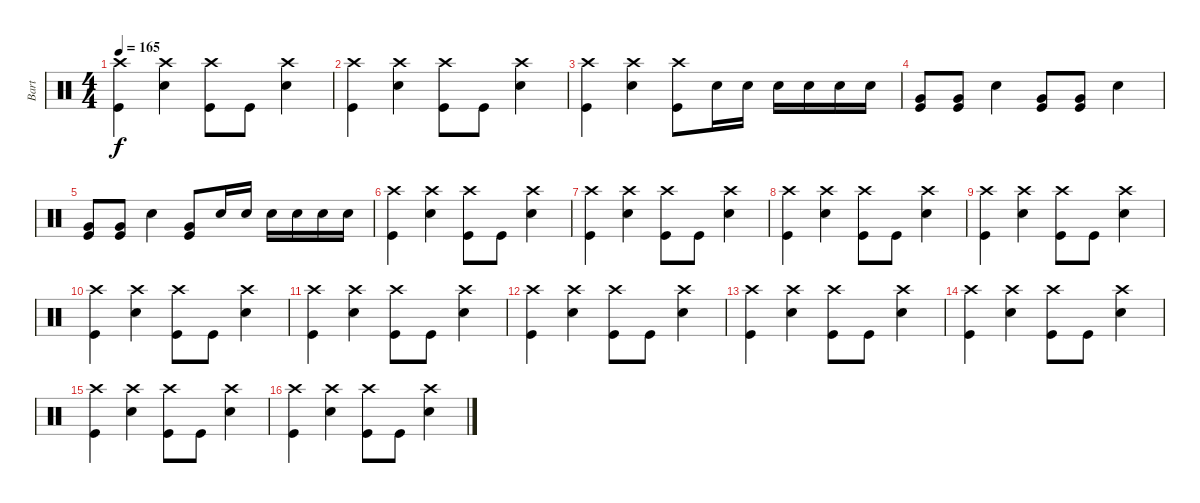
\track ("Bart" "Bart") {instrument percussion}
\staff {score}
\articulation defaults
\ts (4 4)
\tempo 165
\clef neutral
\ks c
("Kick (hit)" "Crash high (hit)").4{dy f} ("Electric Snare (hit)" "Crash high (hit)").4 ("Kick (hit)" "Crash high (hit)").8 "Kick (hit)".8 ("Electric Snare (hit)" "Crash high (hit)").4 |
("Kick (hit)" "Crash high (hit)").4 ("Electric Snare (hit)" "Crash high (hit)").4 ("Kick (hit)" "Crash high (hit)").8 "Kick (hit)".8 ("Electric Snare (hit)" "Crash high (hit)").4 |
("Kick (hit)" "Crash high (hit)").4 ("Electric Snare (hit)" "Crash high (hit)").4 ("Kick (hit)" "Crash high (hit)").8 "Electric Snare (hit)".16 "Electric Snare (hit)".16 "Electric Snare (hit)".16 "Electric Snare (hit)".16 "Electric Snare (hit)".16 "Electric Snare (hit)".16 |
("Kick (hit)" "Very Low Tom (hit)").8 ("Kick (hit)" "Very Low Tom (hit)").8 "Electric Snare (hit)".4 ("Kick (hit)" "Very Low Tom (hit)").8 ("Kick (hit)" "Very Low Tom (hit)").8 "Electric Snare (hit)".4 |
("Kick (hit)" "Very Low Tom (hit)").8 ("Kick (hit)" "Very Low Tom (hit)").8 "Electric Snare (hit)".4 ("Kick (hit)" "Very Low Tom (hit)").8 "Electric Snare (hit)".16 "Electric Snare (hit)".16 "Electric Snare (hit)".16 "Electric Snare (hit)".16 "Electric Snare (hit)".16 "Electric Snare (hit)".16 |
("Kick (hit)" "Crash high (hit)").4 ("Electric Snare (hit)" "Crash high (hit)").4 ("Kick (hit)" "Crash high (hit)").8 "Kick (hit)".8 ("Electric Snare (hit)" "Crash high (hit)").4 |
("Kick (hit)" "Crash high (hit)").4 ("Electric Snare (hit)" "Crash high (hit)").4 ("Kick (hit)" "Crash high (hit)").8 "Kick (hit)".8 ("Electric Snare (hit)" "Crash high (hit)").4 |
("Kick (hit)" "Crash high (hit)").4 ("Electric Snare (hit)" "Crash high (hit)").4 ("Kick (hit)" "Crash high (hit)").8 "Kick (hit)".8 ("Electric Snare (hit)" "Crash high (hit)").4 |
("Kick (hit)" "Crash high (hit)").4 ("Electric Snare (hit)" "Crash high (hit)").4 ("Kick (hit)" "Crash high (hit)").8 "Kick (hit)".8 ("Electric Snare (hit)" "Crash high (hit)").4 |
("Kick (hit)" "Crash high (hit)").4 ("Electric Snare (hit)" "Crash high (hit)").4 ("Kick (hit)" "Crash high (hit)").8 "Kick (hit)".8 ("Electric Snare (hit)" "Crash high (hit)").4 |
("Kick (hit)" "Crash high (hit)").4 ("Electric Snare (hit)" "Crash high (hit)").4 ("Kick (hit)" "Crash high (hit)").8 "Kick (hit)".8 ("Electric Snare (hit)" "Crash high (hit)").4 |
("Kick (hit)" "Crash high (hit)").4 ("Electric Snare (hit)" "Crash high (hit)").4 ("Kick (hit)" "Crash high (hit)").8 "Kick (hit)".8 ("Electric Snare (hit)" "Crash high (hit)").4 |
("Kick (hit)" "Crash high (hit)").4 ("Electric Snare (hit)" "Crash high (hit)").4 ("Kick (hit)" "Crash high (hit)").8 "Kick (hit)".8 ("Electric Snare (hit)" "Crash high (hit)").4 |
("Kick (hit)" "Crash high (hit)").4 ("Electric Snare (hit)" "Crash high (hit)").4 ("Kick (hit)" "Crash high (hit)").8 "Kick (hit)".8 ("Electric Snare (hit)" "Crash high (hit)").4 |
("Kick (hit)" "Crash high (hit)").4 ("Electric Snare (hit)" "Crash high (hit)").4 ("Kick (hit)" "Crash high (hit)").8 "Kick (hit)".8 ("Electric Snare (hit)" "Crash high (hit)").4 |
("Kick (hit)" "Crash high (hit)").4 ("Electric Snare (hit)" "Crash high (hit)").4 ("Kick (hit)" "Crash high (hit)").8 "Kick (hit)".8 ("Electric Snare (hit)" "Crash high (hit)").4
